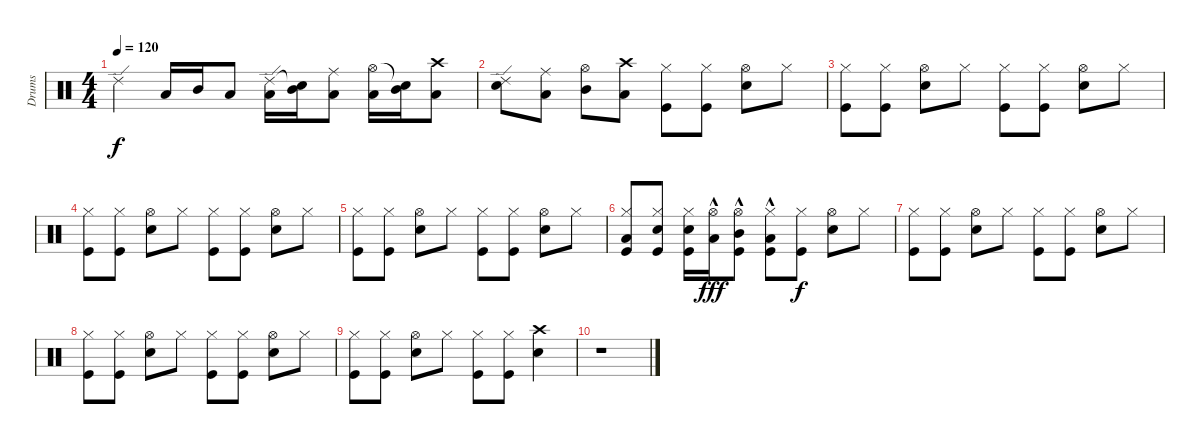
\track ("Drums" "Drums") {instrument percussion}
\staff {score}
\articulation defaults
\ts (4 4)
\tempo 120
\clef neutral
\ks c "Ride (edge) 2".4{dy f} "Low Tom (hit)".16 "Mid Tom (hit)".16 "Low Floor Tom (hit)".8
("Ride (edge) 2" "Low Tom (hit)").16 ("Snare (hit)"{t} "Mid Tom (hit)").16 ("Ride (middle)" "Low Floor Tom (hit)").8 ("Hi-Hat (open)" "Low Tom (hit)").16 ("Snare (hit)"{t} "Mid Tom (hit)").16 ("Crash high (hit)" "Low Floor Tom (hit)").8 |
("Ride (edge) 2" "Electric Snare (hit)").8 ("Ride (middle)" "Low Tom (hit)").8 ("Hi-Hat (open)" "Mid Tom (hit)").8 ("Crash high (hit)" "Low Floor Tom (hit)").8 ("Hi-Hat (closed)" "Kick (hit)").8 ("Hi-Hat (closed)" "Kick (hit)").8 ("Hi-Hat (open)" "Electric Snare (hit)").8 "Hi-Hat (closed)".8 |
("Hi-Hat (closed)" "Kick (hit)").8 ("Hi-Hat (closed)" "Kick (hit)").8 ("Hi-Hat (open)" "Electric Snare (hit)").8 "Hi-Hat (closed)".8 ("Hi-Hat (closed)" "Kick (hit)").8 ("Hi-Hat (closed)" "Kick (hit)").8 ("Hi-Hat (open)" "Electric Snare (hit)").8 "Hi-Hat (closed)".8 |
("Hi-Hat (closed)" "Kick (hit)").8 ("Hi-Hat (closed)" "Kick (hit)").8 ("Hi-Hat (open)" "Electric Snare (hit)").8 "Hi-Hat (closed)".8 ("Hi-Hat (closed)" "Kick (hit)").8 ("Hi-Hat (closed)" "Kick (hit)").8 ("Hi-Hat (open)" "Electric Snare (hit)").8 "Hi-Hat (closed)".8 |
("Hi-Hat (closed)" "Kick (hit)").8 ("Hi-Hat (closed)" "Kick (hit)").8 ("Hi-Hat (open)" "Electric Snare (hit)").8 "Hi-Hat (closed)".8 ("Hi-Hat (closed)" "Kick (hit)").8 ("Hi-Hat (closed)" "Kick (hit)").8 ("Hi-Hat (open)" "Electric Snare (hit)").8 "Hi-Hat (closed)".8 |
("Hi-Hat (closed)" "Low Floor Tom (hit)" "Kick (hit)").8 ("Hi-Hat (closed)" "Electric Snare (hit)" "Kick (hit)").8 ("Hi-Hat (closed)" "Electric Snare (hit)" "Kick (hit)").16 ("Hi-Hat (open)" "Low Tom (hit)"{hac}).16{dy fff} ("Hi-Hat (open)" "Mid Tom (hit)"{hac} "Kick (hit)").8 ("Hi-Hat (closed)" "Low Floor Tom (hit)"{hac} "Kick (hit)").8 ("Hi-Hat (closed)" "Kick (hit)").8{dy f} ("Hi-Hat (open)" "Electric Snare (hit)").8 "Hi-Hat (closed)".8 |
("Hi-Hat (closed)" "Kick (hit)").8 ("Hi-Hat (closed)" "Kick (hit)").8 ("Hi-Hat (open)" "Electric Snare (hit)").8 "Hi-Hat (closed)".8 ("Hi-Hat (closed)" "Kick (hit)").8 ("Hi-Hat (closed)" "Kick (hit)").8 ("Hi-Hat (open)" "Electric Snare (hit)").8 "Hi-Hat (closed)".8 |
("Hi-Hat (closed)" "Kick (hit)").8 ("Hi-Hat (closed)" "Kick (hit)").8 ("Hi-Hat (open)" "Electric Snare (hit)").8 "Hi-Hat (closed)".8 ("Hi-Hat (closed)" "Kick (hit)").8 ("Hi-Hat (closed)" "Kick (hit)").8 ("Hi-Hat (open)" "Electric Snare (hit)").8 "Hi-Hat (closed)".8 |
("Hi-Hat (closed)" "Kick (hit)").8 ("Hi-Hat (closed)" "Kick (hit)").8 ("Hi-Hat (open)" "Electric Snare (hit)").8 "Hi-Hat (closed)".8 ("Hi-Hat (closed)" "Kick (hit)").8 ("Hi-Hat (closed)" "Kick (hit)").8 ("Crash high (hit)" "Electric Snare (hit)").4 |
r.1
